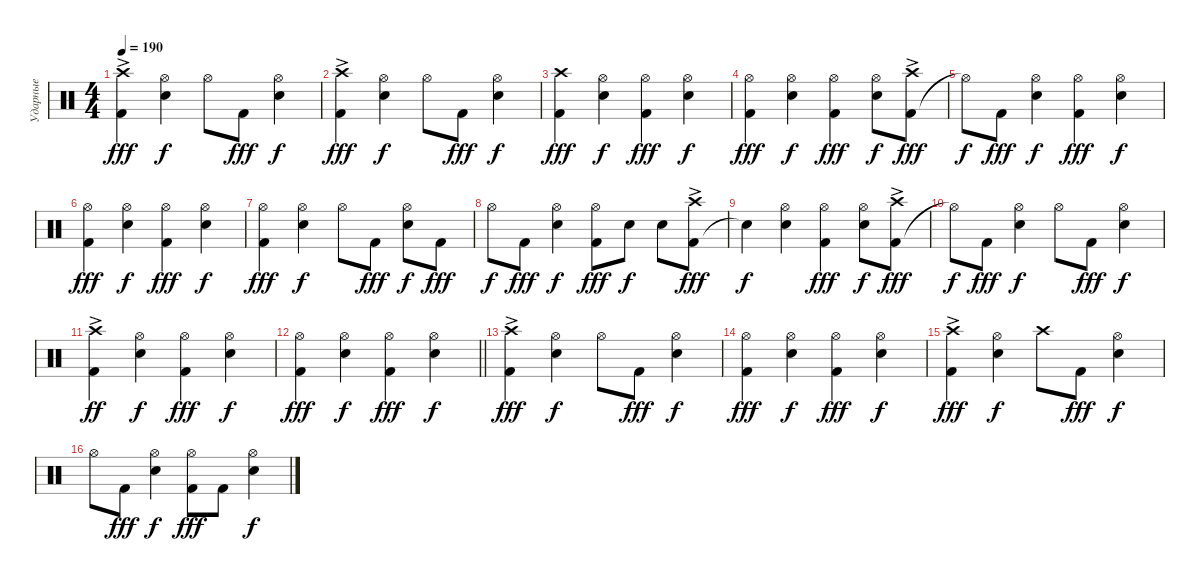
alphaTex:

\track ("Ударные" "Ударные") {instrument percussion}
\staff {score}
\articulation defaults
\ts (4 4)
\tempo 190
\clef neutral
\ks c
("Kick (hit) 2" "Crash high (hit)"{ac}).4{dy fff} ("Snare (hit) 2" "Hi-Hat (open)").4{dy f} "Hi-Hat (open)".8 "Kick (hit) 2".8{dy fff} ("Snare (hit) 2" "Hi-Hat (open)").4{dy f} |
("Kick (hit) 2" "Crash high (hit)"{ac}).4{dy fff} ("Snare (hit) 2" "Hi-Hat (open)").4{dy f} "Hi-Hat (open)".8 "Kick (hit) 2".8{dy fff} ("Snare (hit) 2" "Hi-Hat (open)").4{dy f} |
("Kick (hit) 2" "Crash high (hit)").4{dy fff} ("Snare (hit) 2" "Hi-Hat (open)").4{dy f} ("Kick (hit) 2" "Hi-Hat (open)").4{dy fff} ("Snare (hit) 2" "Hi-Hat (open)").4{dy f} |
("Kick (hit) 2" "Hi-Hat (open)").4{dy fff} ("Snare (hit) 2" "Hi-Hat (open)").4{dy f} ("Kick (hit) 2" "Hi-Hat (open)").4{dy fff} ("Snare (hit) 2" "Hi-Hat (open)").8{dy f} ("Kick (hit) 2" "Crash high (hit)"{ac}).8{dy fff} |
"Hi-Hat (open)"{t}.8{dy f} "Kick (hit) 2".8{dy fff} ("Snare (hit) 2" "Hi-Hat (open)").4{dy f} ("Kick (hit) 2" "Hi-Hat (open)").4{dy fff} ("Snare (hit) 2" "Hi-Hat (open)").4{dy f} |
("Kick (hit) 2" "Hi-Hat (open)").4{dy fff} ("Snare (hit) 2" "Hi-Hat (open)").4{dy f} ("Kick (hit) 2" "Hi-Hat (open)").4{dy fff} ("Snare (hit) 2" "Hi-Hat (open)").4{dy f} |
("Kick (hit) 2" "Hi-Hat (open)").4{dy fff} ("Snare (hit) 2" "Hi-Hat (open)").4{dy f} "Hi-Hat (open)".8 "Kick (hit) 2".8{dy fff} ("Snare (hit) 2" "Hi-Hat (open)").8{dy f} "Kick (hit) 2".8{dy fff} |
"Hi-Hat (open)".8{dy f} "Kick (hit) 2".8{dy fff} ("Snare (hit) 2" "Hi-Hat (open)").4{dy f} ("Kick (hit) 2" "Hi-Hat (open)").8{dy fff} "Snare (hit) 2".8{dy f} "Snare (hit) 2".8 ("Kick (hit) 2" "Crash high (hit)"{ac}).8{dy fff} |
"Snare (hit)"{t}.4{dy f} ("Snare (hit) 2" "Hi-Hat (open)").4 ("Kick (hit) 2" "Hi-Hat (open)").4{dy fff} ("Snare (hit) 2" "Hi-Hat (open)").8{dy f} ("Kick (hit) 2" "Crash high (hit)"{ac}).8{dy fff} |
"Hi-Hat (open)"{t}.8{dy f} "Kick (hit) 2".8{dy fff} ("Snare (hit) 2" "Hi-Hat (open)").4{dy f} "Hi-Hat (open)".8 "Kick (hit) 2".8{dy fff} ("Snare (hit) 2" "Hi-Hat (open)").4{dy f} |
("Kick (hit) 2" "Crash high (hit)"{ac}).4{dy ff} ("Snare (hit) 2" "Hi-Hat (open)").4{dy f} ("Kick (hit) 2" "Hi-Hat (open)").4{dy fff} ("Snare (hit) 2" "Hi-Hat (open)").4{dy f} |
\barLineRight lightlight
("Kick (hit) 2" "Hi-Hat (open)").4{dy fff} ("Snare (hit) 2" "Hi-Hat (open)").4{dy f} ("Kick (hit) 2" "Hi-Hat (open)").4{dy fff} ("Snare (hit) 2" "Hi-Hat (open)").4{dy f} |
("Kick (hit) 2" "Crash high (hit)"{ac}).4{dy fff} ("Snare (hit) 2" "Hi-Hat (open)").4{dy f} "Hi-Hat (open)".8 "Kick (hit) 2".8{dy fff} ("Snare (hit) 2" "Hi-Hat (open)").4{dy f} |
("Kick (hit) 2" "Hi-Hat (open)").4{dy fff} ("Snare (hit) 2" "Hi-Hat (open)").4{dy f} ("Kick (hit) 2" "Hi-Hat (open)").4{dy fff} ("Snare (hit) 2" "Hi-Hat (open)").4{dy f} |
("Kick (hit) 2" "Crash high (hit)"{ac}).4{dy fff} ("Snare (hit) 2" "Hi-Hat (open)").4{dy f} "Crash high (hit)".8 "Kick (hit) 2".8{dy fff} ("Snare (hit) 2" "Hi-Hat (open)").4{dy f} |
"Hi-Hat (open)".8 "Kick (hit) 2".8{dy fff} ("Snare (hit) 2" "Hi-Hat (open)").4{dy f} ("Kick (hit) 2" "Hi-Hat (open)").8{dy fff} "Kick (hit) 2".8 ("Snare (hit) 2" "Hi-Hat (open)").4{dy f}
